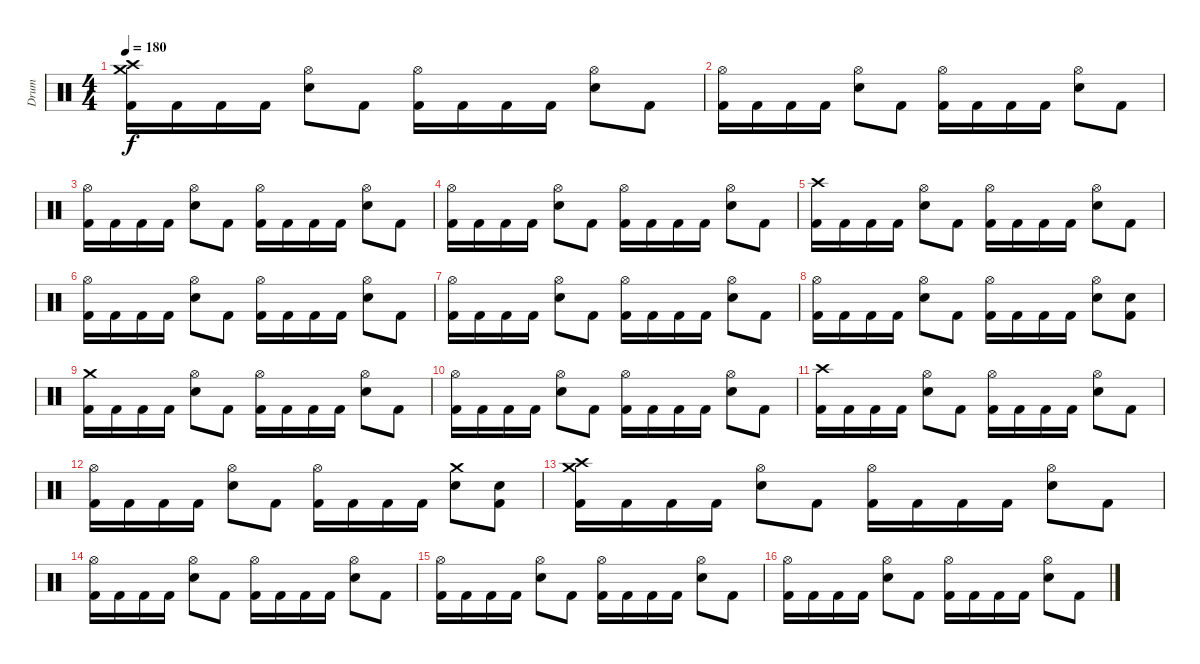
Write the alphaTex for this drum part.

\track ("Drum" "Drum") {instrument percussion}
\staff {score}
\articulation defaults
\ts (4 4)
\section ("" "")
\tempo 180
\clef neutral
\ks c
("Crash high (hit)" "Crash medium (hit)" "Kick (hit) 2").16{dy f} "Kick (hit) 2".16 "Kick (hit) 2".16 "Kick (hit) 2".16 ("Hi-Hat (open)" "Snare (hit) 2").8 "Kick (hit) 2".8 ("Hi-Hat (open)" "Kick (hit) 2").16 "Kick (hit) 2".16 "Kick (hit) 2".16 "Kick (hit) 2".16 ("Hi-Hat (open)" "Snare (hit) 2").8 "Kick (hit) 2".8 |
("Hi-Hat (open)" "Kick (hit) 2").16 "Kick (hit) 2".16 "Kick (hit) 2".16 "Kick (hit) 2".16 ("Hi-Hat (open)" "Snare (hit) 2").8 "Kick (hit) 2".8 ("Hi-Hat (open)" "Kick (hit) 2").16 "Kick (hit) 2".16 "Kick (hit) 2".16 "Kick (hit) 2".16 ("Hi-Hat (open)" "Snare (hit) 2").8 "Kick (hit) 2".8 |
("Hi-Hat (open)" "Kick (hit) 2").16 "Kick (hit) 2".16 "Kick (hit) 2".16 "Kick (hit) 2".16 ("Hi-Hat (open)" "Snare (hit) 2").8 "Kick (hit) 2".8 ("Hi-Hat (open)" "Kick (hit) 2").16 "Kick (hit) 2".16 "Kick (hit) 2".16 "Kick (hit) 2".16 ("Hi-Hat (open)" "Snare (hit) 2").8 "Kick (hit) 2".8 |
("Hi-Hat (open)" "Kick (hit) 2").16 "Kick (hit) 2".16 "Kick (hit) 2".16 "Kick (hit) 2".16 ("Hi-Hat (open)" "Snare (hit) 2").8 "Kick (hit) 2".8 ("Hi-Hat (open)" "Kick (hit) 2").16 "Kick (hit) 2".16 "Kick (hit) 2".16 "Kick (hit) 2".16 ("Hi-Hat (open)" "Snare (hit) 2").8 "Kick (hit) 2".8 |
("Crash high (hit)" "Kick (hit) 2").16 "Kick (hit) 2".16 "Kick (hit) 2".16 "Kick (hit) 2".16 ("Hi-Hat (open)" "Snare (hit) 2").8 "Kick (hit) 2".8 ("Hi-Hat (open)" "Kick (hit) 2").16 "Kick (hit) 2".16 "Kick (hit) 2".16 "Kick (hit) 2".16 ("Hi-Hat (open)" "Snare (hit) 2").8 "Kick (hit) 2".8 |
("Hi-Hat (open)" "Kick (hit) 2").16 "Kick (hit) 2".16 "Kick (hit) 2".16 "Kick (hit) 2".16 ("Hi-Hat (open)" "Snare (hit) 2").8 "Kick (hit) 2".8 ("Hi-Hat (open)" "Kick (hit) 2").16 "Kick (hit) 2".16 "Kick (hit) 2".16 "Kick (hit) 2".16 ("Hi-Hat (open)" "Snare (hit) 2").8 "Kick (hit) 2".8 |
("Hi-Hat (open)" "Kick (hit) 2").16 "Kick (hit) 2".16 "Kick (hit) 2".16 "Kick (hit) 2".16 ("Hi-Hat (open)" "Snare (hit) 2").8 "Kick (hit) 2".8 ("Hi-Hat (open)" "Kick (hit) 2").16 "Kick (hit) 2".16 "Kick (hit) 2".16 "Kick (hit) 2".16 ("Hi-Hat (open)" "Snare (hit) 2").8 "Kick (hit) 2".8 |
("Hi-Hat (open)" "Kick (hit) 2").16 "Kick (hit) 2".16 "Kick (hit) 2".16 "Kick (hit) 2".16 ("Hi-Hat (open)" "Snare (hit) 2").8 "Kick (hit) 2".8 ("Hi-Hat (open)" "Kick (hit) 2").16 "Kick (hit) 2".16 "Kick (hit) 2".16 "Kick (hit) 2".16 ("Hi-Hat (open)" "Snare (hit) 2").8 ("Snare (hit) 2" "Kick (hit) 2").8 |
("Crash medium (hit)" "Kick (hit) 2").16 "Kick (hit) 2".16 "Kick (hit) 2".16 "Kick (hit) 2".16 ("Hi-Hat (open)" "Snare (hit) 2").8 "Kick (hit) 2".8 ("Hi-Hat (open)" "Kick (hit) 2").16 "Kick (hit) 2".16 "Kick (hit) 2".16 "Kick (hit) 2".16 ("Hi-Hat (open)" "Snare (hit) 2").8 "Kick (hit) 2".8 |
("Hi-Hat (open)" "Kick (hit) 2").16 "Kick (hit) 2".16 "Kick (hit) 2".16 "Kick (hit) 2".16 ("Hi-Hat (open)" "Snare (hit) 2").8 "Kick (hit) 2".8 ("Hi-Hat (open)" "Kick (hit) 2").16 "Kick (hit) 2".16 "Kick (hit) 2".16 "Kick (hit) 2".16 ("Hi-Hat (open)" "Snare (hit) 2").8 "Kick (hit) 2".8 |
("Crash high (hit)" "Kick (hit) 2").16 "Kick (hit) 2".16 "Kick (hit) 2".16 "Kick (hit) 2".16 ("Hi-Hat (open)" "Snare (hit) 2").8 "Kick (hit) 2".8 ("Hi-Hat (open)" "Kick (hit) 2").16 "Kick (hit) 2".16 "Kick (hit) 2".16 "Kick (hit) 2".16 ("Hi-Hat (open)" "Snare (hit) 2").8 "Kick (hit) 2".8 |
("Hi-Hat (open)" "Kick (hit) 2").16 "Kick (hit) 2".16 "Kick (hit) 2".16 "Kick (hit) 2".16 ("Hi-Hat (open)" "Snare (hit) 2").8 "Kick (hit) 2".8 ("Hi-Hat (open)" "Kick (hit) 2").16 "Kick (hit) 2".16 "Kick (hit) 2".16 "Kick (hit) 2".16 ("Crash medium (hit)" "Snare (hit) 2").8 ("Snare (hit) 2" "Kick (hit) 2").8 |
("Crash high (hit)" "Crash medium (hit)" "Kick (hit) 2").16 "Kick (hit) 2".16 "Kick (hit) 2".16 "Kick (hit) 2".16 ("Hi-Hat (open)" "Snare (hit) 2").8 "Kick (hit) 2".8 ("Hi-Hat (open)" "Kick (hit) 2").16 "Kick (hit) 2".16 "Kick (hit) 2".16 "Kick (hit) 2".16 ("Hi-Hat (open)" "Snare (hit) 2").8 "Kick (hit) 2".8 |
("Hi-Hat (open)" "Kick (hit) 2").16 "Kick (hit) 2".16 "Kick (hit) 2".16 "Kick (hit) 2".16 ("Hi-Hat (open)" "Snare (hit) 2").8 "Kick (hit) 2".8 ("Hi-Hat (open)" "Kick (hit) 2").16 "Kick (hit) 2".16 "Kick (hit) 2".16 "Kick (hit) 2".16 ("Hi-Hat (open)" "Snare (hit) 2").8 "Kick (hit) 2".8 |
("Hi-Hat (open)" "Kick (hit) 2").16 "Kick (hit) 2".16 "Kick (hit) 2".16 "Kick (hit) 2".16 ("Hi-Hat (open)" "Snare (hit) 2").8 "Kick (hit) 2".8 ("Hi-Hat (open)" "Kick (hit) 2").16 "Kick (hit) 2".16 "Kick (hit) 2".16 "Kick (hit) 2".16 ("Hi-Hat (open)" "Snare (hit) 2").8 "Kick (hit) 2".8 |
("Hi-Hat (open)" "Kick (hit) 2").16 "Kick (hit) 2".16 "Kick (hit) 2".16 "Kick (hit) 2".16 ("Hi-Hat (open)" "Snare (hit) 2").8 "Kick (hit) 2".8 ("Hi-Hat (open)" "Kick (hit) 2").16 "Kick (hit) 2".16 "Kick (hit) 2".16 "Kick (hit) 2".16 ("Hi-Hat (open)" "Snare (hit) 2").8 "Kick (hit) 2".8
